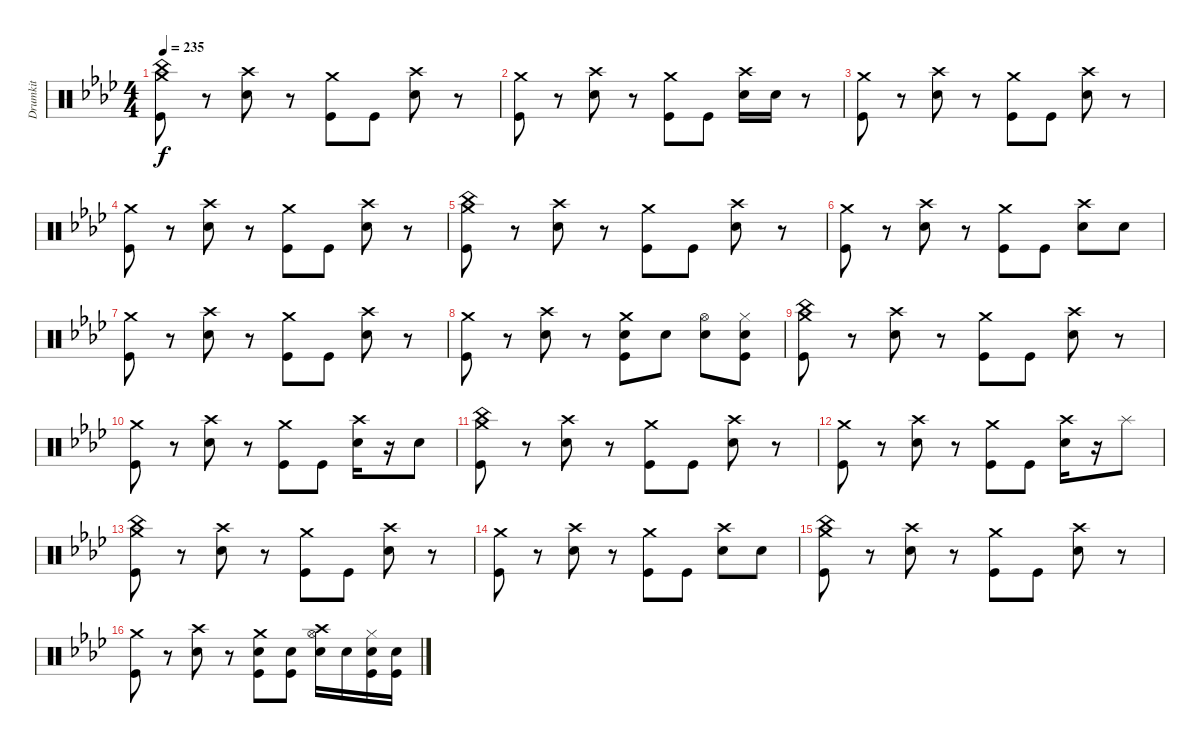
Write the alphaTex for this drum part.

\track ("Drumkit" "Drumkit") {instrument percussion}
\staff {score}
\articulation defaults
\ts (4 4)
\tempo 235
\clef neutral
\ks ab
("Crash medium (hit)" "China (hit)" "Kick (hit)").8{dy f} r.8 ("Crash high (hit)" "Electric Snare (hit)").8 r.8 ("Crash medium (hit)" "Kick (hit)").8 "Kick (hit)".8 ("Crash high (hit)" "Electric Snare (hit)").8 r.8 |
("Crash medium (hit)" "Kick (hit)").8 r.8 ("Crash high (hit)" "Electric Snare (hit)").8 r.8 ("Crash medium (hit)" "Kick (hit)").8 "Kick (hit)".8 ("Crash high (hit)" "Electric Snare (hit)").16 "Electric Snare (hit)".16 r.8 |
("Crash medium (hit)" "Kick (hit)").8 r.8 ("Crash high (hit)" "Electric Snare (hit)").8 r.8 ("Crash medium (hit)" "Kick (hit)").8 "Kick (hit)".8 ("Crash high (hit)" "Electric Snare (hit)").8 r.8 |
("Crash medium (hit)" "Kick (hit)").8 r.8 ("Crash high (hit)" "Electric Snare (hit)").8 r.8 ("Crash medium (hit)" "Kick (hit)").8 "Kick (hit)".8 ("Crash high (hit)" "Electric Snare (hit)").8 r.8 |
("Crash medium (hit)" "China (hit)" "Kick (hit)").8 r.8 ("Crash high (hit)" "Electric Snare (hit)").8 r.8 ("Crash medium (hit)" "Kick (hit)").8 "Kick (hit)".8 ("Crash high (hit)" "Electric Snare (hit)").8 r.8 |
("Crash medium (hit)" "Kick (hit)").8 r.8 ("Crash high (hit)" "Electric Snare (hit)").8 r.8 ("Crash medium (hit)" "Kick (hit)").8 "Kick (hit)".8 ("Crash high (hit)" "Electric Snare (hit)").8 "Electric Snare (hit)".8 |
("Crash medium (hit)" "Kick (hit)").8 r.8 ("Crash high (hit)" "Electric Snare (hit)").8 r.8 ("Crash medium (hit)" "Kick (hit)").8 "Kick (hit)".8 ("Crash high (hit)" "Electric Snare (hit)").8 r.8 |
("Crash medium (hit)" "Kick (hit)").8 r.8 ("Crash high (hit)" "Electric Snare (hit)").8 r.8 ("Crash medium (hit)" "Electric Snare (hit)" "Kick (hit)").8 "Electric Snare (hit)".8 ("Hi-Hat (open)" "Electric Snare (hit)").8 ("Hi-Hat (closed)" "Electric Snare (hit)" "Kick (hit)").8 |
("Crash medium (hit)" "China (hit)" "Kick (hit)").8 r.8 ("Crash high (hit)" "Electric Snare (hit)").8 r.8 ("Crash medium (hit)" "Kick (hit)").8 "Kick (hit)".8 ("Crash high (hit)" "Electric Snare (hit)").8 r.8 |
("Crash medium (hit)" "Kick (hit)").8 r.8 ("Crash high (hit)" "Electric Snare (hit)").8 r.8 ("Crash medium (hit)" "Kick (hit)").8 "Kick (hit)".8 ("Crash high (hit)" "Electric Snare (hit)").16 r.16 "Electric Snare (hit)".8 |
("Crash medium (hit)" "China (hit)" "Kick (hit)").8 r.8 ("Crash high (hit)" "Electric Snare (hit)").8 r.8 ("Crash medium (hit)" "Kick (hit)").8 "Kick (hit)".8 ("Crash high (hit)" "Electric Snare (hit)").8 r.8 |
("Crash medium (hit)" "Kick (hit)").8 r.8 ("Crash high (hit)" "Electric Snare (hit)").8 r.8 ("Crash medium (hit)" "Kick (hit)").8 "Kick (hit)".8 ("Crash high (hit)" "Electric Snare (hit)").16 r.16 "Splash (hit)".8 |
("Crash medium (hit)" "China (hit)" "Kick (hit)").8 r.8 ("Crash high (hit)" "Electric Snare (hit)").8 r.8 ("Crash medium (hit)" "Kick (hit)").8 "Kick (hit)".8 ("Crash high (hit)" "Electric Snare (hit)").8 r.8 |
("Crash medium (hit)" "Kick (hit)").8 r.8 ("Crash high (hit)" "Electric Snare (hit)").8 r.8 ("Crash medium (hit)" "Kick (hit)").8 "Kick (hit)".8 ("Crash high (hit)" "Electric Snare (hit)").8 "Electric Snare (hit)".8 |
("Crash medium (hit)" "China (hit)" "Kick (hit)").8 r.8 ("Crash high (hit)" "Electric Snare (hit)").8 r.8 ("Crash medium (hit)" "Kick (hit)").8 "Kick (hit)".8 ("Crash high (hit)" "Electric Snare (hit)").8 r.8 |
("Crash medium (hit)" "Kick (hit)").8 r.8 ("Crash high (hit)" "Electric Snare (hit)").8 r.8 ("Crash medium (hit)" "Electric Snare (hit)" "Kick (hit)").8 ("Electric Snare (hit)" "Kick (hit)").8 ("Crash high (hit)" "Hi-Hat (open)" "Electric Snare (hit)").16 "Electric Snare (hit)".16 ("Hi-Hat (closed)" "Electric Snare (hit)" "Kick (hit)").16 ("Electric Snare (hit)" "Kick (hit)").16
